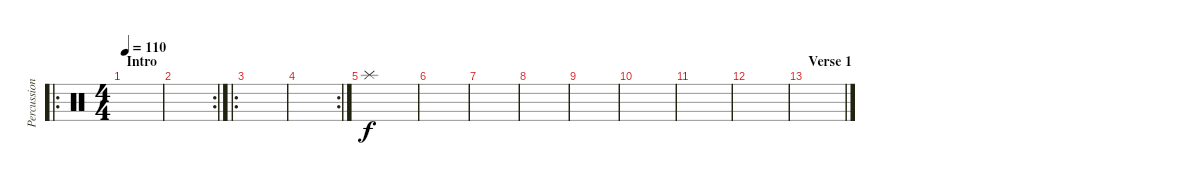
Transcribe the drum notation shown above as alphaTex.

\track ("Percussion" "Percussion") {instrument percussion}
\staff {score}
\articulation defaults
\ro
\ts (4 4)
\section ("" "Intro")
\tempo 110
\clef neutral
\ks c
|
\rc 2
|
\ro
|
\rc 2
|
"Splash (hit)".1 |
|
|
|
|
|
|
|
\section ("" "Verse 1")
